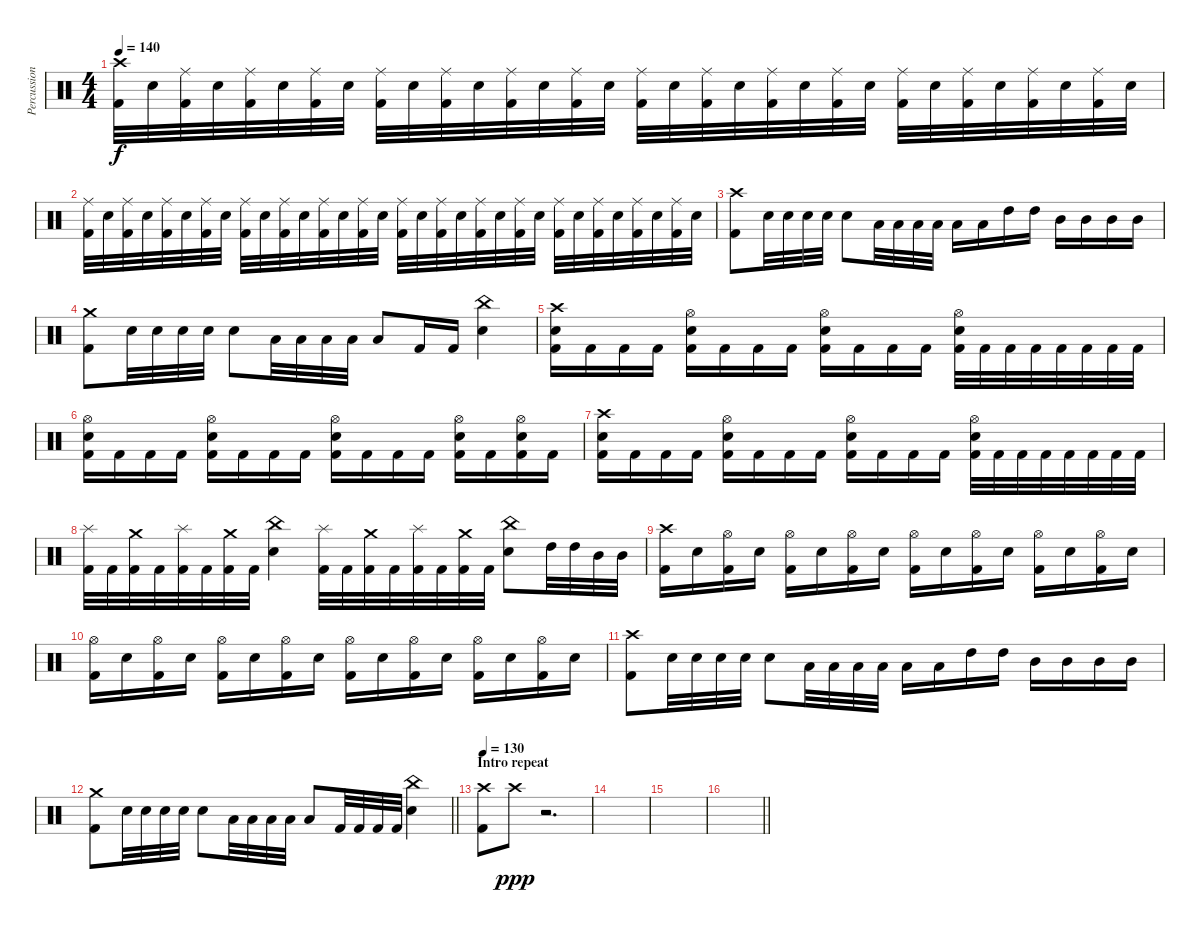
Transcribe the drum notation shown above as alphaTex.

\track ("Percussion" "Percussion") {instrument percussion}
\staff {score}
\articulation defaults
\ts (4 4)
\tempo 140
\clef neutral
\ks c
("Crash high (hit)" "Kick (hit) 2").32{dy f} "Electric Snare (hit)".32 ("Ride (middle)" "Kick (hit) 2").32 "Electric Snare (hit)".32 ("Ride (middle)" "Kick (hit) 2").32 "Electric Snare (hit)".32 ("Ride (middle)" "Kick (hit) 2").32 "Electric Snare (hit)".32 ("Ride (middle)" "Kick (hit) 2").32 "Electric Snare (hit)".32 ("Ride (middle)" "Kick (hit) 2").32 "Electric Snare (hit)".32 ("Ride (middle)" "Kick (hit) 2").32 "Electric Snare (hit)".32 ("Ride (middle)" "Kick (hit) 2").32 "Electric Snare (hit)".32 ("Ride (middle)" "Kick (hit) 2").32 "Electric Snare (hit)".32 ("Ride (middle)" "Kick (hit) 2").32 "Electric Snare (hit)".32 ("Ride (middle)" "Kick (hit) 2").32 "Electric Snare (hit)".32 ("Ride (middle)" "Kick (hit) 2").32 "Electric Snare (hit)".32 ("Ride (middle)" "Kick (hit) 2").32 "Electric Snare (hit)".32 ("Ride (middle)" "Kick (hit) 2").32 "Electric Snare (hit)".32 ("Ride (middle)" "Kick (hit) 2").32 "Electric Snare (hit)".32 ("Ride (middle)" "Kick (hit) 2").32 "Electric Snare (hit)".32 |
("Ride (middle)" "Kick (hit) 2").32 "Electric Snare (hit)".32 ("Ride (middle)" "Kick (hit) 2").32 "Electric Snare (hit)".32 ("Ride (middle)" "Kick (hit) 2").32 "Electric Snare (hit)".32 ("Ride (middle)" "Kick (hit) 2").32 "Electric Snare (hit)".32 ("Ride (middle)" "Kick (hit) 2").32 "Electric Snare (hit)".32 ("Ride (middle)" "Kick (hit) 2").32 "Electric Snare (hit)".32 ("Ride (middle)" "Kick (hit) 2").32 "Electric Snare (hit)".32 ("Ride (middle)" "Kick (hit) 2").32 "Electric Snare (hit)".32 ("Ride (middle)" "Kick (hit) 2").32 "Electric Snare (hit)".32 ("Ride (middle)" "Kick (hit) 2").32 "Electric Snare (hit)".32 ("Ride (middle)" "Kick (hit) 2").32 "Electric Snare (hit)".32 ("Ride (middle)" "Kick (hit) 2").32 "Electric Snare (hit)".32 ("Ride (middle)" "Kick (hit) 2").32 "Electric Snare (hit)".32 ("Ride (middle)" "Kick (hit) 2").32 "Electric Snare (hit)".32 ("Ride (middle)" "Kick (hit) 2").32 "Electric Snare (hit)".32 ("Ride (middle)" "Kick (hit) 2").32 "Electric Snare (hit)".32 |
("Crash high (hit)" "Kick (hit) 2").8 "Electric Snare (hit)".32 "Electric Snare (hit)".32 "Electric Snare (hit)".32 "Electric Snare (hit)".32 "Electric Snare (hit)".8 "Low Tom (hit)".32 "Low Tom (hit)".32 "Low Tom (hit)".32 "Low Tom (hit)".32 "Low Tom (hit)".16 "Low Tom (hit)".16 "High Tom (hit)".16 "High Tom (hit)".16 "Mid Tom (hit)".16 "Mid Tom (hit)".16 "Mid Tom (hit)".16 "Mid Tom (hit)".16 |
("Crash medium (hit)" "Kick (hit) 2").8 "Electric Snare (hit)".32 "Electric Snare (hit)".32 "Electric Snare (hit)".32 "Electric Snare (hit)".32 "Electric Snare (hit)".8 "Low Tom (hit)".32 "Low Tom (hit)".32 "Low Tom (hit)".32 "Low Tom (hit)".32 "Low Tom (hit)".8 "Kick (hit) 2".16 "Kick (hit) 2".16 ("China (hit)" "Electric Snare (hit)").4 |
("Crash high (hit)" "Electric Snare (hit)" "Kick (hit) 2").16 "Kick (hit) 2".16 "Kick (hit) 2".16 "Kick (hit) 2".16 ("Hi-Hat (open)" "Electric Snare (hit)" "Kick (hit) 2").16 "Kick (hit) 2".16 "Kick (hit) 2".16 "Kick (hit) 2".16 ("Hi-Hat (open)" "Electric Snare (hit)" "Kick (hit) 2").16 "Kick (hit) 2".16 "Kick (hit) 2".16 "Kick (hit) 2".16 ("Hi-Hat (open)" "Electric Snare (hit)" "Kick (hit) 2").32 "Kick (hit) 2".32 "Kick (hit) 2".32 "Kick (hit) 2".32 "Kick (hit) 2".32 "Kick (hit) 2".32 "Kick (hit) 2".32 "Kick (hit) 2".32 |
("Hi-Hat (open)" "Electric Snare (hit)" "Kick (hit) 2").16 "Kick (hit) 2".16 "Kick (hit) 2".16 "Kick (hit) 2".16 ("Hi-Hat (open)" "Electric Snare (hit)" "Kick (hit) 2").16 "Kick (hit) 2".16 "Kick (hit) 2".16 "Kick (hit) 2".16 ("Hi-Hat (open)" "Electric Snare (hit)" "Kick (hit) 2").16 "Kick (hit) 2".16 "Kick (hit) 2".16 "Kick (hit) 2".16 ("Hi-Hat (open)" "Electric Snare (hit)" "Kick (hit) 2").16 "Kick (hit) 2".16 ("Hi-Hat (open)" "Electric Snare (hit)" "Kick (hit) 2").16 "Kick (hit) 2".16 |
("Crash high (hit)" "Electric Snare (hit)" "Kick (hit) 2").16 "Kick (hit) 2".16 "Kick (hit) 2".16 "Kick (hit) 2".16 ("Hi-Hat (open)" "Electric Snare (hit)" "Kick (hit) 2").16 "Kick (hit) 2".16 "Kick (hit) 2".16 "Kick (hit) 2".16 ("Hi-Hat (open)" "Electric Snare (hit)" "Kick (hit) 2").16 "Kick (hit) 2".16 "Kick (hit) 2".16 "Kick (hit) 2".16 ("Hi-Hat (open)" "Electric Snare (hit)" "Kick (hit) 2").32 "Kick (hit) 2".32 "Kick (hit) 2".32 "Kick (hit) 2".32 "Kick (hit) 2".32 "Kick (hit) 2".32 "Kick (hit) 2".32 "Kick (hit) 2".32 |
("Splash (hit)" "Kick (hit) 2").32 "Kick (hit) 2".32 ("Crash medium (hit)" "Kick (hit) 2").32 "Kick (hit) 2".32 ("Splash (hit)" "Kick (hit) 2").32 "Kick (hit) 2".32 ("Crash medium (hit)" "Kick (hit) 2").32 "Kick (hit) 2".32 ("China (hit)" "Electric Snare (hit)").4 ("Splash (hit)" "Kick (hit) 2").32 "Kick (hit) 2".32 ("Crash medium (hit)" "Kick (hit) 2").32 "Kick (hit) 2".32 ("Splash (hit)" "Kick (hit) 2").32 "Kick (hit) 2".32 ("Crash medium (hit)" "Kick (hit) 2").32 "Kick (hit) 2".32 ("China (hit)" "Electric Snare (hit)").8 "High Tom (hit)".32 "High Tom (hit)".32 "Mid Tom (hit)".32 "Mid Tom (hit)".32 |
("Crash high (hit)" "Kick (hit) 2").16 "Electric Snare (hit)".16 ("Hi-Hat (open)" "Kick (hit) 2").16 "Electric Snare (hit)".16 ("Hi-Hat (open)" "Kick (hit) 2").16 "Electric Snare (hit)".16 ("Hi-Hat (open)" "Kick (hit) 2").16 "Electric Snare (hit)".16 ("Hi-Hat (open)" "Kick (hit) 2").16 "Electric Snare (hit)".16 ("Hi-Hat (open)" "Kick (hit) 2").16 "Electric Snare (hit)".16 ("Hi-Hat (open)" "Kick (hit) 2").16 "Electric Snare (hit)".16 ("Hi-Hat (open)" "Kick (hit) 2").16 "Electric Snare (hit)".16 |
("Hi-Hat (open)" "Kick (hit) 2").16 "Electric Snare (hit)".16 ("Hi-Hat (open)" "Kick (hit) 2").16 "Electric Snare (hit)".16 ("Hi-Hat (open)" "Kick (hit) 2").16 "Electric Snare (hit)".16 ("Hi-Hat (open)" "Kick (hit) 2").16 "Electric Snare (hit)".16 ("Hi-Hat (open)" "Kick (hit) 2").16 "Electric Snare (hit)".16 ("Hi-Hat (open)" "Kick (hit) 2").16 "Electric Snare (hit)".16 ("Hi-Hat (open)" "Kick (hit) 2").16 "Electric Snare (hit)".16 ("Hi-Hat (open)" "Kick (hit) 2").16 "Electric Snare (hit)".16 |
("Crash high (hit)" "Kick (hit) 2").8 "Electric Snare (hit)".32 "Electric Snare (hit)".32 "Electric Snare (hit)".32 "Electric Snare (hit)".32 "Electric Snare (hit)".8 "Low Tom (hit)".32 "Low Tom (hit)".32 "Low Tom (hit)".32 "Low Tom (hit)".32 "Low Tom (hit)".16 "Low Tom (hit)".16 "High Tom (hit)".16 "High Tom (hit)".16 "Mid Tom (hit)".16 "Mid Tom (hit)".16 "Mid Tom (hit)".16 "Mid Tom (hit)".16 |
\barLineRight lightlight
("Crash medium (hit)" "Kick (hit) 2").8 "Electric Snare (hit)".32 "Electric Snare (hit)".32 "Electric Snare (hit)".32 "Electric Snare (hit)".32 "Electric Snare (hit)".8 "Low Tom (hit)".32 "Low Tom (hit)".32 "Low Tom (hit)".32 "Low Tom (hit)".32 "Low Tom (hit)".8 "Kick (hit) 2".32 "Kick (hit) 2".32 "Kick (hit) 2".32 "Kick (hit) 2".32 ("China (hit)" "Electric Snare (hit)").4 |
\section ("" "Intro repeat")
\tempo 130
("Crash high (hit)" "Kick (hit) 2").8 "Crash high (hit)".8{dy ppp} r.2{d} |
|
|
\barLineRight lightlight
